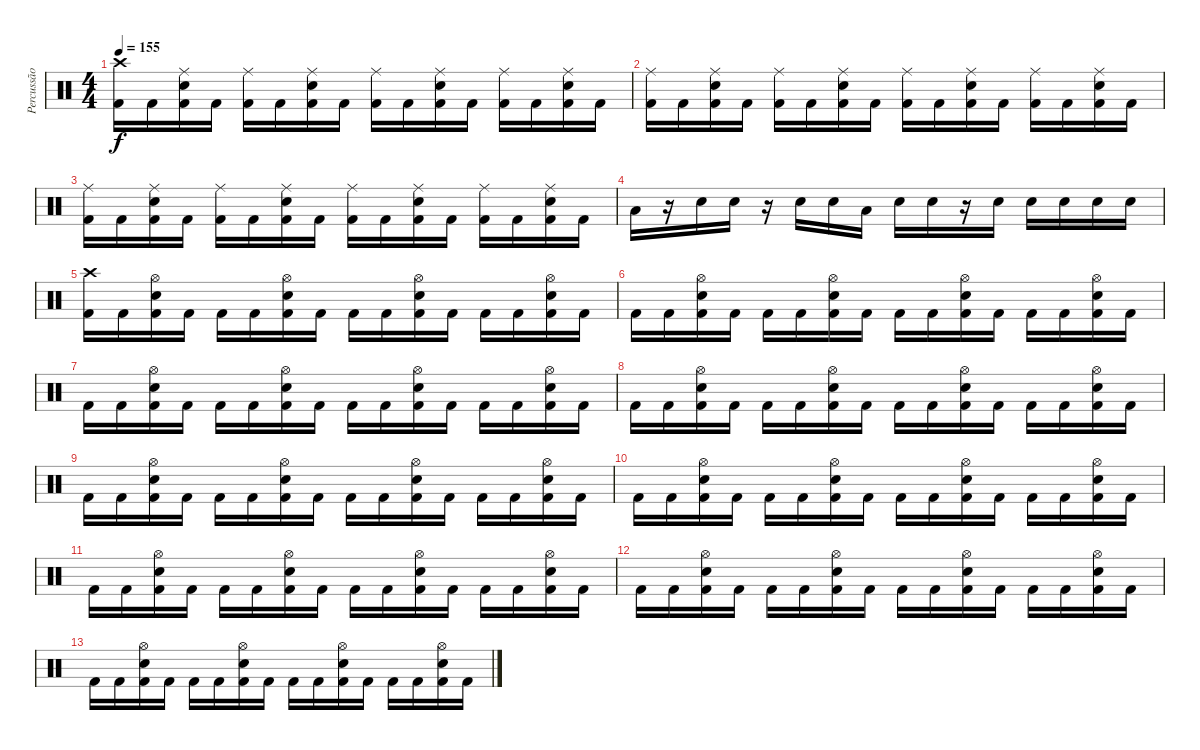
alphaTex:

\track ("Percussão" "Percussão") {instrument percussion}
\staff {score}
\articulation defaults
\ts (4 4)
\tempo 155
\clef neutral
\ks c
("Kick (hit) 2" "Crash high (hit)").16{dy f} "Kick (hit) 2".16 ("Kick (hit) 2" "Snare (hit) 2" "Ride (middle)").16 "Kick (hit) 2".16 ("Kick (hit) 2" "Ride (middle)").16 "Kick (hit) 2".16 ("Kick (hit) 2" "Snare (hit) 2" "Ride (middle)").16 "Kick (hit) 2".16 ("Kick (hit) 2" "Ride (middle)").16 "Kick (hit) 2".16 ("Kick (hit) 2" "Snare (hit) 2" "Ride (middle)").16 "Kick (hit) 2".16 ("Kick (hit) 2" "Ride (middle)").16 "Kick (hit) 2".16 ("Kick (hit) 2" "Snare (hit) 2" "Ride (middle)").16 "Kick (hit) 2".16 |
("Kick (hit) 2" "Ride (middle)").16 "Kick (hit) 2".16 ("Kick (hit) 2" "Snare (hit) 2" "Ride (middle)").16 "Kick (hit) 2".16 ("Kick (hit) 2" "Ride (middle)").16 "Kick (hit) 2".16 ("Kick (hit) 2" "Snare (hit) 2" "Ride (middle)").16 "Kick (hit) 2".16 ("Kick (hit) 2" "Ride (middle)").16 "Kick (hit) 2".16 ("Kick (hit) 2" "Snare (hit) 2" "Ride (middle)").16 "Kick (hit) 2".16 ("Kick (hit) 2" "Ride (middle)").16 "Kick (hit) 2".16 ("Kick (hit) 2" "Snare (hit) 2" "Ride (middle)").16 "Kick (hit) 2".16 |
("Kick (hit) 2" "Ride (middle)").16 "Kick (hit) 2".16 ("Kick (hit) 2" "Snare (hit) 2" "Ride (middle)").16 "Kick (hit) 2".16 ("Kick (hit) 2" "Ride (middle)").16 "Kick (hit) 2".16 ("Kick (hit) 2" "Snare (hit) 2" "Ride (middle)").16 "Kick (hit) 2".16 ("Kick (hit) 2" "Ride (middle)").16 "Kick (hit) 2".16 ("Kick (hit) 2" "Snare (hit) 2" "Ride (middle)").16 "Kick (hit) 2".16 ("Kick (hit) 2" "Ride (middle)").16 "Kick (hit) 2".16 ("Kick (hit) 2" "Snare (hit) 2" "Ride (middle)").16 "Kick (hit) 2".16 |
"Low Tom (hit)".16 r.16 "Snare (hit) 2".16 "Snare (hit) 2".16 r.16 "Snare (hit) 2".16 "Snare (hit) 2".16 "Low Tom (hit)".16 "Snare (hit) 2".16 "Snare (hit) 2".16 r.16 "Snare (hit) 2".16 "Snare (hit) 2".16 "Snare (hit) 2".16 "Snare (hit) 2".16 "Snare (hit) 2".16 |
("Kick (hit) 2" "Crash high (hit)").16 "Kick (hit) 2".16 ("Kick (hit) 2" "Snare (hit) 2" "Hi-Hat (open)").16 "Kick (hit) 2".16 "Kick (hit) 2".16 "Kick (hit) 2".16 ("Kick (hit) 2" "Snare (hit) 2" "Hi-Hat (open)").16 "Kick (hit) 2".16 "Kick (hit) 2".16 "Kick (hit) 2".16 ("Kick (hit) 2" "Snare (hit) 2" "Hi-Hat (open)").16 "Kick (hit) 2".16 "Kick (hit) 2".16 "Kick (hit) 2".16 ("Kick (hit) 2" "Snare (hit) 2" "Hi-Hat (open)").16 "Kick (hit) 2".16 |
"Kick (hit) 2".16 "Kick (hit) 2".16 ("Kick (hit) 2" "Snare (hit) 2" "Hi-Hat (open)").16 "Kick (hit) 2".16 "Kick (hit) 2".16 "Kick (hit) 2".16 ("Kick (hit) 2" "Snare (hit) 2" "Hi-Hat (open)").16 "Kick (hit) 2".16 "Kick (hit) 2".16 "Kick (hit) 2".16 ("Kick (hit) 2" "Snare (hit) 2" "Hi-Hat (open)").16 "Kick (hit) 2".16 "Kick (hit) 2".16 "Kick (hit) 2".16 ("Kick (hit) 2" "Snare (hit) 2" "Hi-Hat (open)").16 "Kick (hit) 2".16 |
"Kick (hit) 2".16 "Kick (hit) 2".16 ("Kick (hit) 2" "Snare (hit) 2" "Hi-Hat (open)").16 "Kick (hit) 2".16 "Kick (hit) 2".16 "Kick (hit) 2".16 ("Kick (hit) 2" "Snare (hit) 2" "Hi-Hat (open)").16 "Kick (hit) 2".16 "Kick (hit) 2".16 "Kick (hit) 2".16 ("Kick (hit) 2" "Snare (hit) 2" "Hi-Hat (open)").16 "Kick (hit) 2".16 "Kick (hit) 2".16 "Kick (hit) 2".16 ("Kick (hit) 2" "Snare (hit) 2" "Hi-Hat (open)").16 "Kick (hit) 2".16 |
"Kick (hit) 2".16 "Kick (hit) 2".16 ("Kick (hit) 2" "Snare (hit) 2" "Hi-Hat (open)").16 "Kick (hit) 2".16 "Kick (hit) 2".16 "Kick (hit) 2".16 ("Kick (hit) 2" "Snare (hit) 2" "Hi-Hat (open)").16 "Kick (hit) 2".16 "Kick (hit) 2".16 "Kick (hit) 2".16 ("Kick (hit) 2" "Snare (hit) 2" "Hi-Hat (open)").16 "Kick (hit) 2".16 "Kick (hit) 2".16 "Kick (hit) 2".16 ("Kick (hit) 2" "Snare (hit) 2" "Hi-Hat (open)").16 "Kick (hit) 2".16 |
"Kick (hit) 2".16 "Kick (hit) 2".16 ("Kick (hit) 2" "Snare (hit) 2" "Hi-Hat (open)").16 "Kick (hit) 2".16 "Kick (hit) 2".16 "Kick (hit) 2".16 ("Kick (hit) 2" "Snare (hit) 2" "Hi-Hat (open)").16 "Kick (hit) 2".16 "Kick (hit) 2".16 "Kick (hit) 2".16 ("Kick (hit) 2" "Snare (hit) 2" "Hi-Hat (open)").16 "Kick (hit) 2".16 "Kick (hit) 2".16 "Kick (hit) 2".16 ("Kick (hit) 2" "Snare (hit) 2" "Hi-Hat (open)").16 "Kick (hit) 2".16 |
"Kick (hit) 2".16 "Kick (hit) 2".16 ("Kick (hit) 2" "Snare (hit) 2" "Hi-Hat (open)").16 "Kick (hit) 2".16 "Kick (hit) 2".16 "Kick (hit) 2".16 ("Kick (hit) 2" "Snare (hit) 2" "Hi-Hat (open)").16 "Kick (hit) 2".16 "Kick (hit) 2".16 "Kick (hit) 2".16 ("Kick (hit) 2" "Snare (hit) 2" "Hi-Hat (open)").16 "Kick (hit) 2".16 "Kick (hit) 2".16 "Kick (hit) 2".16 ("Kick (hit) 2" "Snare (hit) 2" "Hi-Hat (open)").16 "Kick (hit) 2".16 |
"Kick (hit) 2".16 "Kick (hit) 2".16 ("Kick (hit) 2" "Snare (hit) 2" "Hi-Hat (open)").16 "Kick (hit) 2".16 "Kick (hit) 2".16 "Kick (hit) 2".16 ("Kick (hit) 2" "Snare (hit) 2" "Hi-Hat (open)").16 "Kick (hit) 2".16 "Kick (hit) 2".16 "Kick (hit) 2".16 ("Kick (hit) 2" "Snare (hit) 2" "Hi-Hat (open)").16 "Kick (hit) 2".16 "Kick (hit) 2".16 "Kick (hit) 2".16 ("Kick (hit) 2" "Snare (hit) 2" "Hi-Hat (open)").16 "Kick (hit) 2".16 |
"Kick (hit) 2".16 "Kick (hit) 2".16 ("Kick (hit) 2" "Snare (hit) 2" "Hi-Hat (open)").16 "Kick (hit) 2".16 "Kick (hit) 2".16 "Kick (hit) 2".16 ("Kick (hit) 2" "Snare (hit) 2" "Hi-Hat (open)").16 "Kick (hit) 2".16 "Kick (hit) 2".16 "Kick (hit) 2".16 ("Kick (hit) 2" "Snare (hit) 2" "Hi-Hat (open)").16 "Kick (hit) 2".16 "Kick (hit) 2".16 "Kick (hit) 2".16 ("Kick (hit) 2" "Snare (hit) 2" "Hi-Hat (open)").16 "Kick (hit) 2".16 |
"Kick (hit) 2".16 "Kick (hit) 2".16 ("Kick (hit) 2" "Snare (hit) 2" "Hi-Hat (open)").16 "Kick (hit) 2".16 "Kick (hit) 2".16 "Kick (hit) 2".16 ("Kick (hit) 2" "Snare (hit) 2" "Hi-Hat (open)").16 "Kick (hit) 2".16 "Kick (hit) 2".16 "Kick (hit) 2".16 ("Kick (hit) 2" "Snare (hit) 2" "Hi-Hat (open)").16 "Kick (hit) 2".16 "Kick (hit) 2".16 "Kick (hit) 2".16 ("Kick (hit) 2" "Snare (hit) 2" "Hi-Hat (open)").16 "Kick (hit) 2".16
